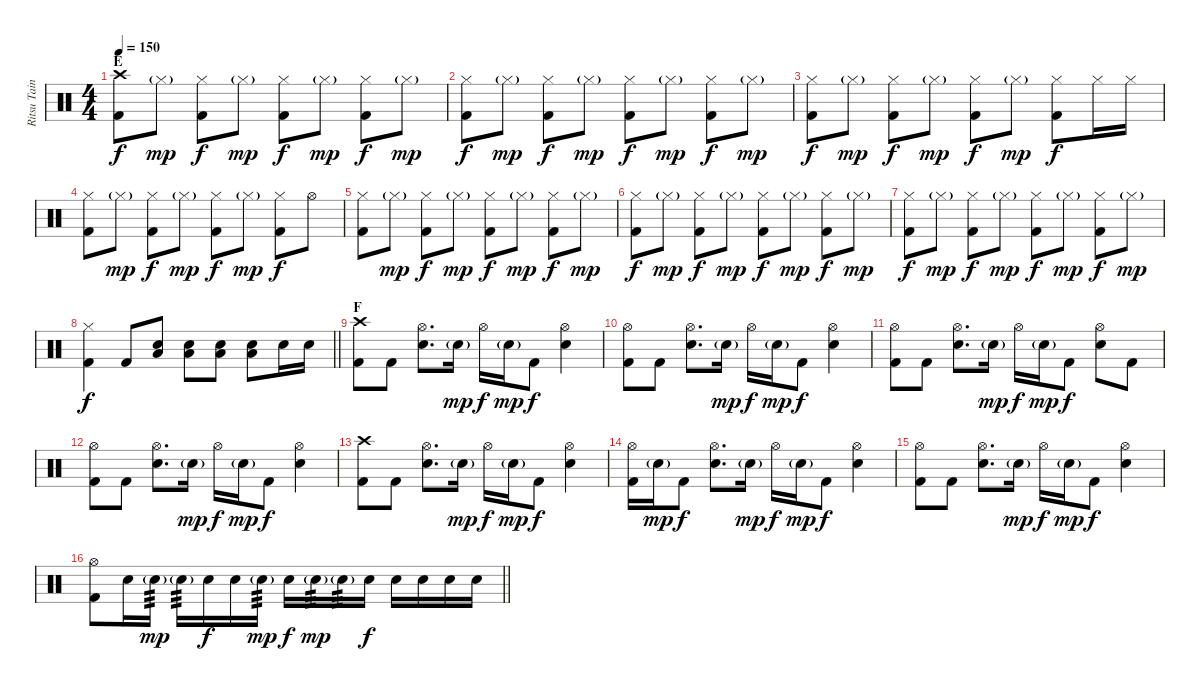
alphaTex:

\track ("Ritsu Tainaka" "Ritsu Tain") {instrument percussion}
\staff {score}
\articulation defaults
\ts (4 4)
\section ("" "E")
\tempo 150
\clef neutral
\ks c
("Crash high (hit)" "Kick (hit) 2").8{dy f} "Hi-Hat (closed)"{g}.8{dy mp} ("Hi-Hat (closed)" "Kick (hit) 2").8{dy f} "Hi-Hat (closed)"{g}.8{dy mp} ("Hi-Hat (closed)" "Kick (hit) 2").8{dy f} "Hi-Hat (closed)"{g}.8{dy mp} ("Hi-Hat (closed)" "Kick (hit) 2").8{dy f} "Hi-Hat (closed)"{g}.8{dy mp} |
("Hi-Hat (closed)" "Kick (hit) 2").8{dy f} "Hi-Hat (closed)"{g}.8{dy mp} ("Hi-Hat (closed)" "Kick (hit) 2").8{dy f} "Hi-Hat (closed)"{g}.8{dy mp} ("Hi-Hat (closed)" "Kick (hit) 2").8{dy f} "Hi-Hat (closed)"{g}.8{dy mp} ("Hi-Hat (closed)" "Kick (hit) 2").8{dy f} "Hi-Hat (closed)"{g}.8{dy mp} |
("Hi-Hat (closed)" "Kick (hit) 2").8{dy f} "Hi-Hat (closed)"{g}.8{dy mp} ("Hi-Hat (closed)" "Kick (hit) 2").8{dy f} "Hi-Hat (closed)"{g}.8{dy mp} ("Hi-Hat (closed)" "Kick (hit) 2").8{dy f} "Hi-Hat (closed)"{g}.8{dy mp} ("Hi-Hat (closed)" "Kick (hit) 2").8{dy f} "Hi-Hat (closed)".16 "Hi-Hat (closed)".16 |
("Hi-Hat (closed)" "Kick (hit) 2").8 "Hi-Hat (closed)"{g}.8{dy mp} ("Hi-Hat (closed)" "Kick (hit) 2").8{dy f} "Hi-Hat (closed)"{g}.8{dy mp} ("Hi-Hat (closed)" "Kick (hit) 2").8{dy f} "Hi-Hat (closed)"{g}.8{dy mp} ("Hi-Hat (closed)" "Kick (hit) 2").8{dy f} "Hi-Hat (open)".8 |
("Hi-Hat (closed)" "Kick (hit) 2").8 "Hi-Hat (closed)"{g}.8{dy mp} ("Hi-Hat (closed)" "Kick (hit) 2").8{dy f} "Hi-Hat (closed)"{g}.8{dy mp} ("Hi-Hat (closed)" "Kick (hit) 2").8{dy f} "Hi-Hat (closed)"{g}.8{dy mp} ("Hi-Hat (closed)" "Kick (hit) 2").8{dy f} "Hi-Hat (closed)"{g}.8{dy mp} |
("Hi-Hat (closed)" "Kick (hit) 2").8{dy f} "Hi-Hat (closed)"{g}.8{dy mp} ("Hi-Hat (closed)" "Kick (hit) 2").8{dy f} "Hi-Hat (closed)"{g}.8{dy mp} ("Hi-Hat (closed)" "Kick (hit) 2").8{dy f} "Hi-Hat (closed)"{g}.8{dy mp} ("Hi-Hat (closed)" "Kick (hit) 2").8{dy f} "Hi-Hat (closed)"{g}.8{dy mp} |
("Hi-Hat (closed)" "Kick (hit) 2").8{dy f} "Hi-Hat (closed)"{g}.8{dy mp} ("Hi-Hat (closed)" "Kick (hit) 2").8{dy f} "Hi-Hat (closed)"{g}.8{dy mp} ("Hi-Hat (closed)" "Kick (hit) 2").8{dy f} "Hi-Hat (closed)"{g}.8{dy mp} ("Hi-Hat (closed)" "Kick (hit) 2").8{dy f} "Hi-Hat (closed)"{g}.8{dy mp} |
\barLineRight lightlight
("Hi-Hat (closed)" "Kick (hit) 2").4{dy f} "Kick (hit) 2".8 ("Electric Snare (hit)" "Low Floor Tom (hit)").8 ("Electric Snare (hit)" "Low Floor Tom (hit)").8 ("Electric Snare (hit)" "Low Floor Tom (hit)").8 ("Electric Snare (hit)" "Low Floor Tom (hit)").8 "Electric Snare (hit)".16 "Electric Snare (hit)".16 |
\section ("" "F")
("Crash high (hit)" "Kick (hit) 2").8 "Kick (hit) 2".8 ("Hi-Hat (open)" "Electric Snare (hit)").8{d} "Electric Snare (hit)"{g}.16{dy mp} "Hi-Hat (open)".16{dy f} "Electric Snare (hit)"{g}.16{dy mp} "Kick (hit) 2".8{dy f} ("Hi-Hat (open)" "Electric Snare (hit)").4 |
("Hi-Hat (open)" "Kick (hit) 2").8 "Kick (hit) 2".8 ("Hi-Hat (open)" "Electric Snare (hit)").8{d} "Electric Snare (hit)"{g}.16{dy mp} "Hi-Hat (open)".16{dy f} "Electric Snare (hit)"{g}.16{dy mp} "Kick (hit) 2".8{dy f} ("Hi-Hat (open)" "Electric Snare (hit)").4 |
("Hi-Hat (open)" "Kick (hit) 2").8 "Kick (hit) 2".8 ("Hi-Hat (open)" "Electric Snare (hit)").8{d} "Electric Snare (hit)"{g}.16{dy mp} "Hi-Hat (open)".16{dy f} "Electric Snare (hit)"{g}.16{dy mp} "Kick (hit) 2".8{dy f} ("Hi-Hat (open)" "Electric Snare (hit)").8 "Kick (hit) 2".8 |
("Hi-Hat (open)" "Kick (hit) 2").8 "Kick (hit) 2".8 ("Hi-Hat (open)" "Electric Snare (hit)").8{d} "Electric Snare (hit)"{g}.16{dy mp} "Hi-Hat (open)".16{dy f} "Electric Snare (hit)"{g}.16{dy mp} "Kick (hit) 2".8{dy f} ("Hi-Hat (open)" "Electric Snare (hit)").4 |
("Crash high (hit)" "Kick (hit) 2").8 "Kick (hit) 2".8 ("Hi-Hat (open)" "Electric Snare (hit)").8{d} "Electric Snare (hit)"{g}.16{dy mp} "Hi-Hat (open)".16{dy f} "Electric Snare (hit)"{g}.16{dy mp} "Kick (hit) 2".8{dy f} ("Hi-Hat (open)" "Electric Snare (hit)").4 |
("Hi-Hat (open)" "Kick (hit) 2").16 "Electric Snare (hit)"{g}.16{dy mp} "Kick (hit) 2".8{dy f} ("Hi-Hat (open)" "Electric Snare (hit)").8{d} "Electric Snare (hit)"{g}.16{dy mp} "Hi-Hat (open)".16{dy f} "Electric Snare (hit)"{g}.16{dy mp} "Kick (hit) 2".8{dy f} ("Hi-Hat (open)" "Electric Snare (hit)").4 |
("Hi-Hat (open)" "Kick (hit) 2").8 "Kick (hit) 2".8 ("Hi-Hat (open)" "Electric Snare (hit)").8{d} "Electric Snare (hit)"{g}.16{dy mp} "Hi-Hat (open)".16{dy f} "Electric Snare (hit)"{g}.16{dy mp} "Kick (hit) 2".8{dy f} ("Hi-Hat (open)" "Electric Snare (hit)").4 |
\barLineRight lightlight
("Hi-Hat (open)" "Kick (hit) 2").8 "Electric Snare (hit)".16 "Electric Snare (hit)"{g}.16{tp 3 dy mp} "Electric Snare (hit)"{g}.16{tp 3} "Electric Snare (hit)".16{dy f} "Electric Snare (hit)".16 "Electric Snare (hit)"{g}.16{tp 3 dy mp} "Electric Snare (hit)".16{dy f} "Electric Snare (hit)"{g}.16{tp 3 dy mp} "Electric Snare (hit)"{g}.16{tp 3} "Electric Snare (hit)".16{dy f} "Electric Snare (hit)".16 "Electric Snare (hit)".16 "Electric Snare (hit)".16 "Electric Snare (hit)".16
